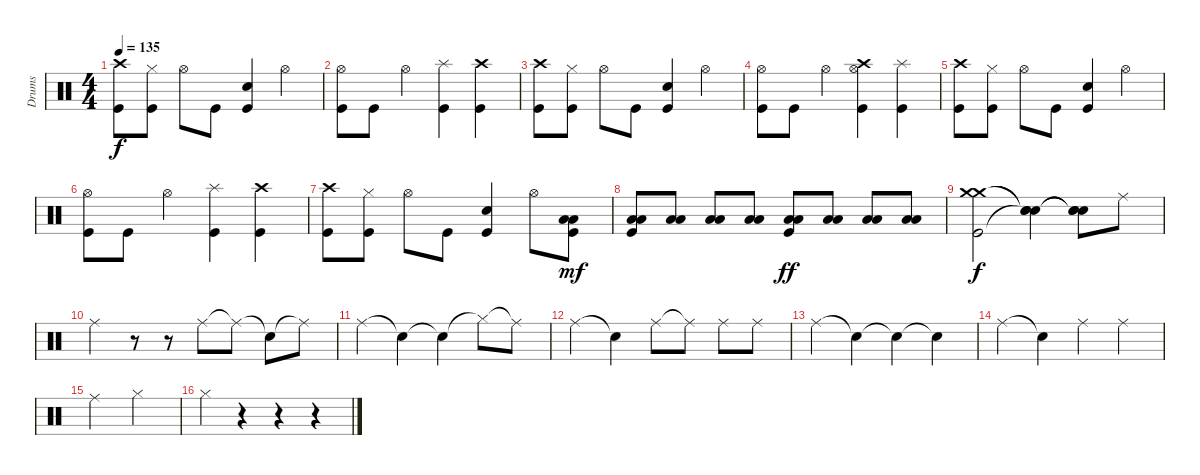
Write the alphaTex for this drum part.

\track ("Drums" "Drums") {instrument percussion}
\staff {score}
\articulation defaults
\ts (4 4)
\tempo 135
\clef neutral
\ks c
("Crash high (hit)" "Kick (hit)").8{dy f} ("Hi-Hat (closed)" "Kick (hit)").8 "Hi-Hat (open)".8 "Kick (hit)".8 ("Snare (hit) 2" "Kick (hit)").4 "Hi-Hat (open)".4 |
("Hi-Hat (open)" "Kick (hit)").8 "Kick (hit)".8 "Hi-Hat (open)".4 ("Splash (hit)" "Kick (hit)").4 ("Crash high (hit)" "Kick (hit)").4 |
("Crash high (hit)" "Kick (hit)").8 ("Hi-Hat (closed)" "Kick (hit)").8 "Hi-Hat (open)".8 "Kick (hit)".8 ("Snare (hit) 2" "Kick (hit)").4 "Hi-Hat (open)".4 |
("Hi-Hat (open)" "Kick (hit)").8 "Kick (hit)".8 "Hi-Hat (open)".4 ("Crash high (hit)" "Hi-Hat (open)" "Kick (hit)").4 ("Splash (hit)" "Kick (hit)").4 |
("Crash high (hit)" "Kick (hit)").8 ("Hi-Hat (closed)" "Kick (hit)").8 "Hi-Hat (open)".8 "Kick (hit)".8 ("Snare (hit) 2" "Kick (hit)").4 "Hi-Hat (open)".4 |
("Hi-Hat (open)" "Kick (hit)").8 "Kick (hit)".8 "Hi-Hat (open)".4 ("Splash (hit)" "Kick (hit)").4 ("Crash high (hit)" "Kick (hit)").4 |
("Crash high (hit)" "Kick (hit)").8 ("Hi-Hat (closed)" "Kick (hit)").8 "Hi-Hat (open)".8 "Kick (hit)".8 ("Snare (hit) 2" "Kick (hit)").4 "Hi-Hat (open)".8 ("Low Floor Tom (hit)" "Low Floor Tom (hit)" "Kick (hit)").8{dy mf} |
("Low Floor Tom (hit)" "Low Floor Tom (hit)" "Kick (hit)").8 ("Low Floor Tom (hit)" "Low Floor Tom (hit)").8 ("Low Floor Tom (hit)" "Low Floor Tom (hit)").8 ("Low Floor Tom (hit)" "Low Floor Tom (hit)").8 ("Low Floor Tom (hit)" "Low Floor Tom (hit)" "Kick (hit)").8{dy ff} ("Low Floor Tom (hit)" "Low Floor Tom (hit)").8 ("Low Floor Tom (hit)" "Low Floor Tom (hit)").8 ("Low Floor Tom (hit)" "Low Floor Tom (hit)").8 |
("Crash medium (hit)" "Crash medium (hit)" "Kick (hit)").2{dy f} ("Snare (hit)"{t} "Snare (hit)"{t} "Snare (hit)"{t}).4 ("Snare (hit)"{t} "Snare (hit)"{t} "Snare (hit)"{t}).8 "Ride (middle)".8 |
"Ride (middle)".4 r.8 r.8 "Ride (middle)".8 "Ride (middle)"{t}.8 "Snare (hit)"{t}.8 "Ride (middle)"{t}.8 |
"Ride (middle)".4 "Snare (hit)"{t}.4 "Snare (hit)"{t}.4 "Hi-Hat (closed)"{t}.8 "Ride (middle)"{t}.8 |
"Ride (middle)".4 "Snare (hit)"{t}.4 "Ride (middle)".8 "Ride (middle)"{t}.8 "Ride (middle)".8 "Ride (middle)".8 |
"Ride (middle)".4 "Snare (hit)"{t}.4 "Snare (hit)"{t}.4 "Snare (hit)"{t}.4 |
"Ride (middle)".4 "Snare (hit)"{t}.4 "Ride (middle)".4 "Ride (middle)".4 |
"Ride (middle)".2 "Hi-Hat (closed)".2 |
"Hi-Hat (closed)".4 r.4 r.4 r.4
